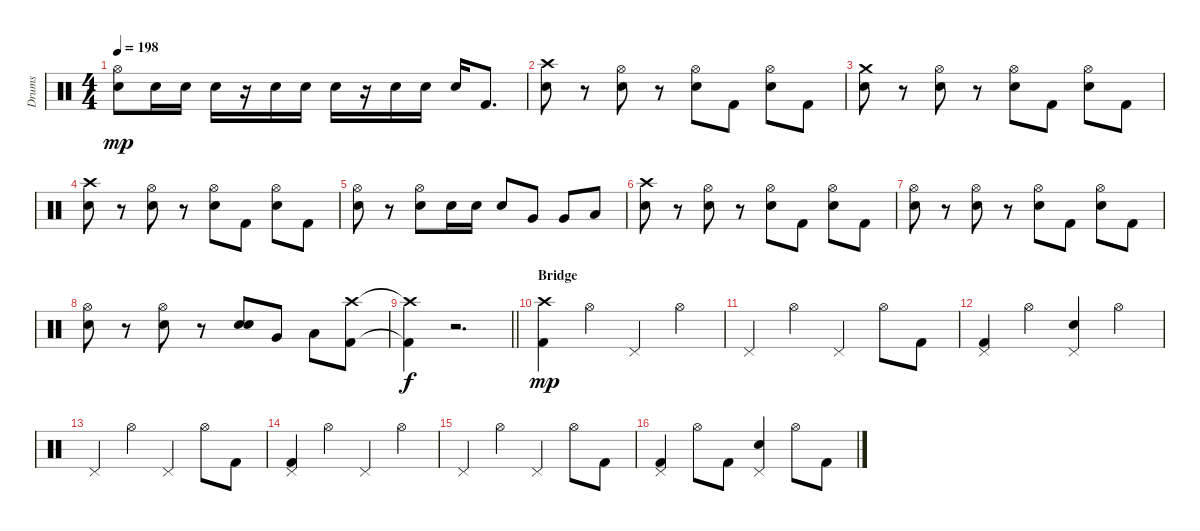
\track ("Drums" "Drums") {instrument percussion}
\staff {score}
\articulation defaults
\ts (4 4)
\tempo 198
\clef neutral
\ks c
("Hi-Hat (open)" "Snare (hit) 2").8{dy mp} "Snare (hit) 2".16 "Snare (hit) 2".16 "Snare (hit) 2".16 r.16 "Snare (hit) 2".16 "Snare (hit) 2".16 "Snare (hit) 2".16 r.16 "Snare (hit) 2".16 "Snare (hit) 2".16 "Snare (hit) 2".16 "Kick (hit) 2".8{d} |
("Crash high (hit)" "Snare (hit) 2").8 r.8 ("Hi-Hat (open)" "Snare (hit) 2").8 r.8 ("Hi-Hat (open)" "Snare (hit) 2").8 "Kick (hit) 2".8 ("Hi-Hat (open)" "Snare (hit) 2").8 "Kick (hit) 2".8 |
("Crash medium (hit)" "Snare (hit) 2").8 r.8 ("Hi-Hat (open)" "Snare (hit) 2").8 r.8 ("Hi-Hat (open)" "Snare (hit) 2").8 "Kick (hit) 2".8 ("Hi-Hat (open)" "Snare (hit) 2").8 "Kick (hit) 2".8 |
("Crash high (hit)" "Snare (hit) 2").8 r.8 ("Hi-Hat (open)" "Snare (hit) 2").8 r.8 ("Hi-Hat (open)" "Snare (hit) 2").8 "Kick (hit) 2".8 ("Hi-Hat (open)" "Snare (hit) 2").8 "Kick (hit) 2".8 |
("Hi-Hat (open)" "Snare (hit) 2").8 r.8 ("Hi-Hat (open)" "Snare (hit) 2").8 "Snare (hit) 2".16 "Snare (hit) 2".16 "Snare (hit) 2".8 "Very Low Tom (hit)".8 "Very Low Tom (hit)".8 "Low Floor Tom (hit)".8 |
("Crash high (hit)" "Snare (hit) 2").8 r.8 ("Hi-Hat (open)" "Snare (hit) 2").8 r.8 ("Hi-Hat (open)" "Snare (hit) 2").8 "Kick (hit) 2".8 ("Hi-Hat (open)" "Snare (hit) 2").8 "Kick (hit) 2".8 |
("Hi-Hat (open)" "Snare (hit) 2").8 r.8 ("Hi-Hat (open)" "Snare (hit) 2").8 r.8 ("Hi-Hat (open)" "Snare (hit) 2").8 "Kick (hit) 2".8 ("Hi-Hat (open)" "Snare (hit) 2").8 "Kick (hit) 2".8 |
("Hi-Hat (open)" "Snare (hit) 2").8 r.8 ("Hi-Hat (open)" "Snare (hit) 2").8 r.8 ("Electric Snare (hit)" "Snare (hit) 2").8 "Very Low Tom (hit)".8 "Low Floor Tom (hit)".8 ("Crash high (hit)" "Kick (hit) 2").8 |
\barLineRight lightlight
("Crash high (hit)"{t} "Kick (hit) 2"{t}).4{dy f} r.2{d} |
\section ("" "Bridge")
("Crash high (hit)" "Kick (hit) 2").4{dy mp} "Hi-Hat (open)".4 "Pedal Hi-Hat (hit)".4 "Hi-Hat (open)".4 |
"Pedal Hi-Hat (hit)".4 "Hi-Hat (open)".4 "Pedal Hi-Hat (hit)".4 "Hi-Hat (open)".8 "Kick (hit) 2".8 |
("Pedal Hi-Hat (hit)" "Kick (hit) 2").4 "Hi-Hat (open)".4 ("Pedal Hi-Hat (hit)" "Snare (hit) 2").4 "Hi-Hat (open)".4 |
"Pedal Hi-Hat (hit)".4 "Hi-Hat (open)".4 "Pedal Hi-Hat (hit)".4 "Hi-Hat (open)".8 "Kick (hit) 2".8 |
("Pedal Hi-Hat (hit)" "Kick (hit) 2").4 "Hi-Hat (open)".4 "Pedal Hi-Hat (hit)".4 "Hi-Hat (open)".4 |
"Pedal Hi-Hat (hit)".4 "Hi-Hat (open)".4 "Pedal Hi-Hat (hit)".4 "Hi-Hat (open)".8 "Kick (hit) 2".8 |
("Pedal Hi-Hat (hit)" "Kick (hit) 2").4 "Hi-Hat (open)".8 "Kick (hit) 2".8 ("Pedal Hi-Hat (hit)" "Snare (hit) 2").4 "Hi-Hat (open)".8 "Kick (hit) 2".8
